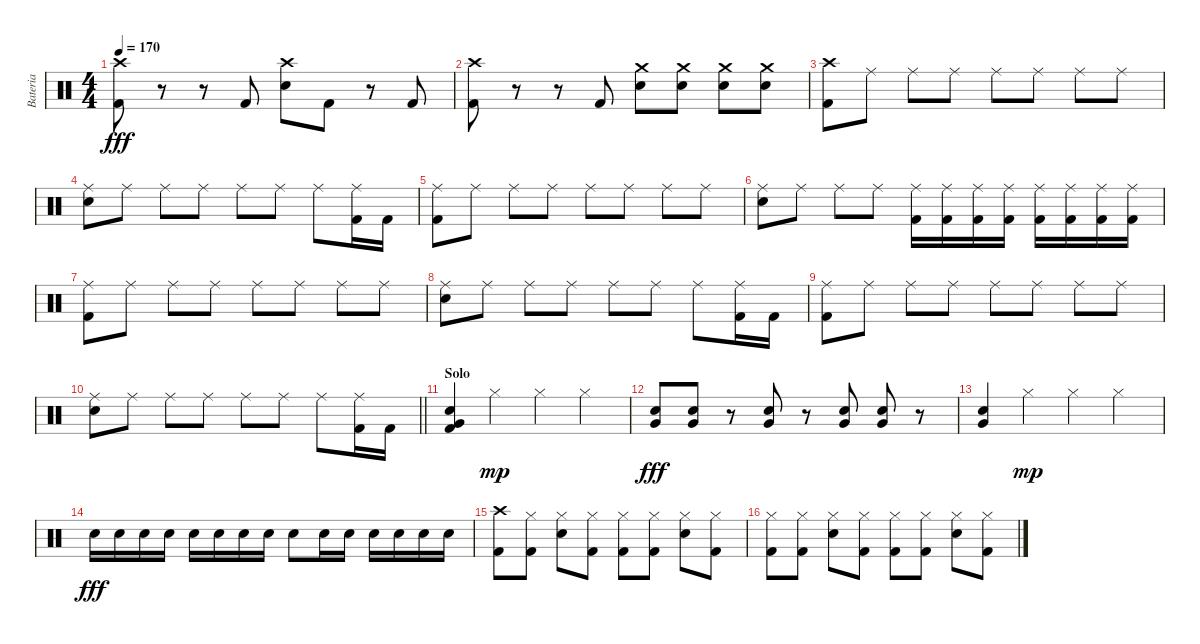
\track ("Bateria" "Bateria") {instrument percussion}
\staff {score}
\articulation defaults
\ts (4 4)
\tempo 170
\clef neutral
\ks c
("Crash high (hit)" "Kick (hit) 2").8{dy fff} r.8 r.8 "Kick (hit) 2".8 ("Crash high (hit)" "Electric Snare (hit)").8 "Kick (hit) 2".8 r.8 "Kick (hit) 2".8 |
("Crash high (hit)" "Kick (hit) 2").8 r.8 r.8 "Kick (hit) 2".8 ("Crash medium (hit)" "Electric Snare (hit)").8 ("Crash medium (hit)" "Electric Snare (hit)").8 ("Crash medium (hit)" "Electric Snare (hit)").8 ("Crash medium (hit)" "Electric Snare (hit)").8 |
("Crash high (hit)" "Kick (hit) 2").8 "Ride (middle)".8 "Ride (middle)".8 "Ride (middle)".8 "Ride (middle)".8 "Ride (middle)".8 "Ride (middle)".8 "Ride (middle)".8 |
("Ride (middle)" "Electric Snare (hit)").8 "Ride (middle)".8 "Ride (middle)".8 "Ride (middle)".8 "Ride (middle)".8 "Ride (middle)".8 "Ride (middle)".8 ("Ride (middle)" "Kick (hit) 2").16 "Kick (hit) 2".16 |
("Ride (middle)" "Kick (hit) 2").8 "Ride (middle)".8 "Ride (middle)".8 "Ride (middle)".8 "Ride (middle)".8 "Ride (middle)".8 "Ride (middle)".8 "Ride (middle)".8 |
("Ride (middle)" "Electric Snare (hit)").8 "Ride (middle)".8 "Ride (middle)".8 "Ride (middle)".8 ("Ride (middle)" "Kick (hit) 2").16 ("Ride (middle)" "Kick (hit) 2").16 ("Ride (middle)" "Kick (hit) 2").16 ("Ride (middle)" "Kick (hit) 2").16 ("Ride (middle)" "Kick (hit) 2").16 ("Ride (middle)" "Kick (hit) 2").16 ("Ride (middle)" "Kick (hit) 2").16 ("Ride (middle)" "Kick (hit) 2").16 |
("Ride (middle)" "Kick (hit) 2").8 "Ride (middle)".8 "Ride (middle)".8 "Ride (middle)".8 "Ride (middle)".8 "Ride (middle)".8 "Ride (middle)".8 "Ride (middle)".8 |
("Ride (middle)" "Electric Snare (hit)").8 "Ride (middle)".8 "Ride (middle)".8 "Ride (middle)".8 "Ride (middle)".8 "Ride (middle)".8 "Ride (middle)".8 ("Ride (middle)" "Kick (hit) 2").16 "Kick (hit) 2".16 |
("Ride (middle)" "Kick (hit) 2").8 "Ride (middle)".8 "Ride (middle)".8 "Ride (middle)".8 "Ride (middle)".8 "Ride (middle)".8 "Ride (middle)".8 "Ride (middle)".8 |
\barLineRight lightlight
("Ride (middle)" "Electric Snare (hit)").8 "Ride (middle)".8 "Ride (middle)".8 "Ride (middle)".8 "Ride (middle)".8 "Ride (middle)".8 "Ride (middle)".8 ("Ride (middle)" "Kick (hit) 2").16 "Kick (hit) 2".16 |
\section ("" "Solo ")
("Electric Snare (hit)" "Very Low Tom (hit)" "Kick (hit) 2").4 "Hi-Hat (closed)".4{dy mp} "Hi-Hat (closed)".4 "Hi-Hat (closed)".4 |
("Electric Snare (hit)" "Very Low Tom (hit)").8{dy fff} ("Electric Snare (hit)" "Very Low Tom (hit)").8 r.8 ("Electric Snare (hit)" "Very Low Tom (hit)").8 r.8 ("Electric Snare (hit)" "Very Low Tom (hit)").8 ("Electric Snare (hit)" "Very Low Tom (hit)").8 r.8 |
("Electric Snare (hit)" "Very Low Tom (hit)").4 "Hi-Hat (closed)".4{dy mp} "Hi-Hat (closed)".4 "Hi-Hat (closed)".4 |
"Electric Snare (hit)".16{dy fff} "Electric Snare (hit)".16 "Electric Snare (hit)".16 "Electric Snare (hit)".16 "Electric Snare (hit)".16 "Electric Snare (hit)".16 "Electric Snare (hit)".16 "Electric Snare (hit)".16 "Electric Snare (hit)".8 "Electric Snare (hit)".16 "Electric Snare (hit)".16 "Electric Snare (hit)".16 "Electric Snare (hit)".16 "Electric Snare (hit)".16 "Electric Snare (hit)".16 |
("Crash high (hit)" "Kick (hit) 2").8 ("Hi-Hat (closed)" "Kick (hit) 2").8 ("Hi-Hat (closed)" "Electric Snare (hit)").8 ("Hi-Hat (closed)" "Kick (hit) 2").8 ("Hi-Hat (closed)" "Kick (hit) 2").8 ("Hi-Hat (closed)" "Kick (hit) 2").8 ("Hi-Hat (closed)" "Electric Snare (hit)").8 ("Hi-Hat (closed)" "Kick (hit) 2").8 |
("Hi-Hat (closed)" "Kick (hit) 2").8 ("Hi-Hat (closed)" "Kick (hit) 2").8 ("Hi-Hat (closed)" "Electric Snare (hit)").8 ("Hi-Hat (closed)" "Kick (hit) 2").8 ("Hi-Hat (closed)" "Kick (hit) 2").8 ("Hi-Hat (closed)" "Kick (hit) 2").8 ("Hi-Hat (closed)" "Electric Snare (hit)").8 ("Hi-Hat (closed)" "Kick (hit) 2").8
